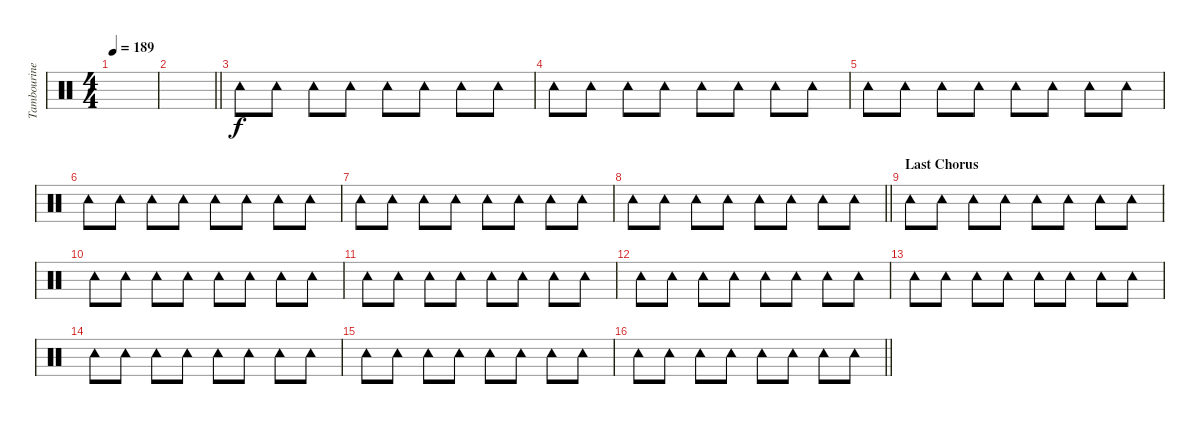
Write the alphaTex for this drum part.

\track ("Tambourine" "Tambourine") {instrument percussion}
\staff {score}
\articulation defaults
\ts (4 4)
\tempo 189
\clef neutral
\ks c
|
\barLineRight lightlight
|
\section ("" "")
"Tambourine (hit)".8 "Tambourine (hit)".8 "Tambourine (hit)".8 "Tambourine (hit)".8 "Tambourine (hit)".8 "Tambourine (hit)".8 "Tambourine (hit)".8 "Tambourine (hit)".8 |
"Tambourine (hit)".8 "Tambourine (hit)".8 "Tambourine (hit)".8 "Tambourine (hit)".8 "Tambourine (hit)".8 "Tambourine (hit)".8 "Tambourine (hit)".8 "Tambourine (hit)".8 |
"Tambourine (hit)".8 "Tambourine (hit)".8 "Tambourine (hit)".8 "Tambourine (hit)".8 "Tambourine (hit)".8 "Tambourine (hit)".8 "Tambourine (hit)".8 "Tambourine (hit)".8 |
"Tambourine (hit)".8 "Tambourine (hit)".8 "Tambourine (hit)".8 "Tambourine (hit)".8 "Tambourine (hit)".8 "Tambourine (hit)".8 "Tambourine (hit)".8 "Tambourine (hit)".8 |
"Tambourine (hit)".8 "Tambourine (hit)".8 "Tambourine (hit)".8 "Tambourine (hit)".8 "Tambourine (hit)".8 "Tambourine (hit)".8 "Tambourine (hit)".8 "Tambourine (hit)".8 |
\barLineRight lightlight "Tambourine (hit)".8 "Tambourine (hit)".8 "Tambourine (hit)".8 "Tambourine (hit)".8 "Tambourine (hit)".8 "Tambourine (hit)".8 "Tambourine (hit)".8 "Tambourine (hit)".8
|
\section ("" "Last Chorus")
"Tambourine (hit)".8 "Tambourine (hit)".8 "Tambourine (hit)".8 "Tambourine (hit)".8 "Tambourine (hit)".8 "Tambourine (hit)".8 "Tambourine (hit)".8 "Tambourine (hit)".8 |
"Tambourine (hit)".8 "Tambourine (hit)".8 "Tambourine (hit)".8 "Tambourine (hit)".8 "Tambourine (hit)".8 "Tambourine (hit)".8 "Tambourine (hit)".8 "Tambourine (hit)".8 |
"Tambourine (hit)".8 "Tambourine (hit)".8 "Tambourine (hit)".8 "Tambourine (hit)".8 "Tambourine (hit)".8 "Tambourine (hit)".8 "Tambourine (hit)".8 "Tambourine (hit)".8 |
"Tambourine (hit)".8 "Tambourine (hit)".8 "Tambourine (hit)".8 "Tambourine (hit)".8 "Tambourine (hit)".8 "Tambourine (hit)".8 "Tambourine (hit)".8 "Tambourine (hit)".8 |
"Tambourine (hit)".8 "Tambourine (hit)".8 "Tambourine (hit)".8 "Tambourine (hit)".8 "Tambourine (hit)".8 "Tambourine (hit)".8 "Tambourine (hit)".8 "Tambourine (hit)".8 |
"Tambourine (hit)".8 "Tambourine (hit)".8 "Tambourine (hit)".8 "Tambourine (hit)".8 "Tambourine (hit)".8 "Tambourine (hit)".8 "Tambourine (hit)".8 "Tambourine (hit)".8 |
"Tambourine (hit)".8 "Tambourine (hit)".8 "Tambourine (hit)".8 "Tambourine (hit)".8 "Tambourine (hit)".8 "Tambourine (hit)".8 "Tambourine (hit)".8 "Tambourine (hit)".8 |
\barLineRight lightlight "Tambourine (hit)".8 "Tambourine (hit)".8 "Tambourine (hit)".8 "Tambourine (hit)".8 "Tambourine (hit)".8 "Tambourine (hit)".8 "Tambourine (hit)".8 "Tambourine (hit)".8
